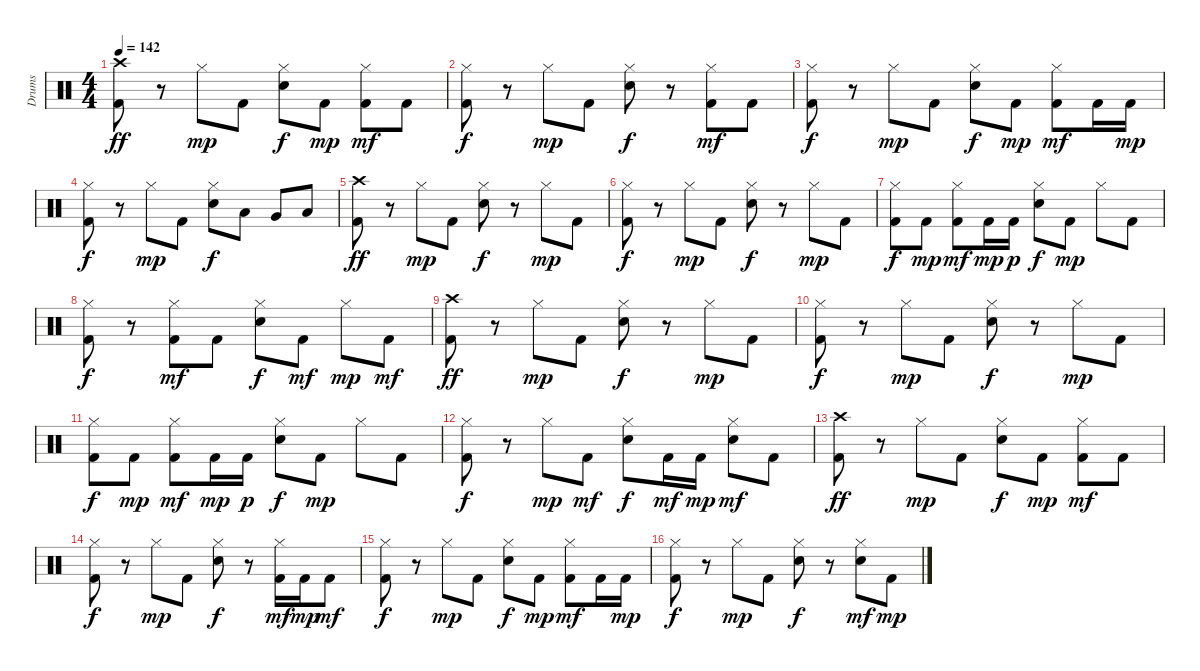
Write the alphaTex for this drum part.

\track ("Drums" "Drums") {instrument percussion}
\staff {score}
\articulation defaults
\ts (4 4)
\tempo 142
\clef neutral
\ks c
("Crash high (hit)" "Kick (hit) 2").8{dy ff} r.8 "Hi-Hat (closed)".8{dy mp} "Kick (hit) 2".8 ("Hi-Hat (closed)" "Snare (hit) 2").8{dy f} "Kick (hit) 2".8{dy mp} ("Hi-Hat (closed)" "Kick (hit) 2").8{dy mf} "Kick (hit) 2".8 |
("Hi-Hat (closed)" "Kick (hit) 2").8{dy f} r.8 "Hi-Hat (closed)".8{dy mp} "Kick (hit) 2".8 ("Hi-Hat (closed)" "Snare (hit) 2").8{dy f} r.8 ("Hi-Hat (closed)" "Kick (hit) 2").8{dy mf} "Kick (hit) 2".8 |
("Hi-Hat (closed)" "Kick (hit) 2").8{dy f} r.8 "Hi-Hat (closed)".8{dy mp} "Kick (hit) 2".8 ("Hi-Hat (closed)" "Snare (hit) 2").8{dy f} "Kick (hit) 2".8{dy mp} ("Hi-Hat (closed)" "Kick (hit) 2").8{dy mf} "Kick (hit) 2".16 "Kick (hit) 2".16{dy mp} |
("Hi-Hat (closed)" "Kick (hit) 2").8{dy f} r.8 "Hi-Hat (closed)".8{dy mp} "Kick (hit) 2".8 ("Hi-Hat (closed)" "Snare (hit) 2").8{dy f} "Low Tom (hit)".8 "Very Low Tom (hit)".8 "Low Floor Tom (hit)".8 |
("Crash high (hit)" "Kick (hit) 2").8{dy ff} r.8 "Hi-Hat (closed)".8{dy mp} "Kick (hit) 2".8 ("Hi-Hat (closed)" "Snare (hit) 2").8{dy f} r.8 "Hi-Hat (closed)".8{dy mp} "Kick (hit) 2".8 |
("Hi-Hat (closed)" "Kick (hit) 2").8{dy f} r.8 "Hi-Hat (closed)".8{dy mp} "Kick (hit) 2".8 ("Hi-Hat (closed)" "Snare (hit) 2").8{dy f} r.8 "Hi-Hat (closed)".8{dy mp} "Kick (hit) 2".8 |
("Hi-Hat (closed)" "Kick (hit) 2").8{dy f} "Kick (hit) 2".8{dy mp} ("Hi-Hat (closed)" "Kick (hit) 2").8{dy mf} "Kick (hit) 2".16{dy mp} "Kick (hit) 2".16{dy p} ("Hi-Hat (closed)" "Snare (hit) 2").8{dy f} "Kick (hit) 2".8{dy mp} "Hi-Hat (closed)".8 "Kick (hit) 2".8 |
("Hi-Hat (closed)" "Kick (hit) 2").8{dy f} r.8 ("Hi-Hat (closed)" "Kick (hit) 2").8{dy mf} "Kick (hit) 2".8 ("Hi-Hat (closed)" "Snare (hit) 2").8{dy f} "Kick (hit) 2".8{dy mf} "Hi-Hat (closed)".8{dy mp} "Kick (hit) 2".8{dy mf} |
("Crash high (hit)" "Kick (hit) 2").8{dy ff} r.8 "Hi-Hat (closed)".8{dy mp} "Kick (hit) 2".8 ("Hi-Hat (closed)" "Snare (hit) 2").8{dy f} r.8 "Hi-Hat (closed)".8{dy mp} "Kick (hit) 2".8 |
("Hi-Hat (closed)" "Kick (hit) 2").8{dy f} r.8 "Hi-Hat (closed)".8{dy mp} "Kick (hit) 2".8 ("Hi-Hat (closed)" "Snare (hit) 2").8{dy f} r.8 "Hi-Hat (closed)".8{dy mp} "Kick (hit) 2".8 |
("Hi-Hat (closed)" "Kick (hit) 2").8{dy f} "Kick (hit) 2".8{dy mp} ("Hi-Hat (closed)" "Kick (hit) 2").8{dy mf} "Kick (hit) 2".16{dy mp} "Kick (hit) 2".16{dy p} ("Hi-Hat (closed)" "Snare (hit) 2").8{dy f} "Kick (hit) 2".8{dy mp} "Hi-Hat (closed)".8 "Kick (hit) 2".8 |
("Hi-Hat (closed)" "Kick (hit) 2").8{dy f} r.8 "Hi-Hat (closed)".8{dy mp} "Kick (hit) 2".8{dy mf} ("Hi-Hat (closed)" "Snare (hit) 2").8{dy f} "Kick (hit) 2".16{dy mf} "Kick (hit) 2".16{dy mp} ("Hi-Hat (closed)" "Snare (hit) 2").8{dy mf} "Kick (hit) 2".8 |
("Crash high (hit)" "Kick (hit) 2").8{dy ff} r.8 "Hi-Hat (closed)".8{dy mp} "Kick (hit) 2".8 ("Hi-Hat (closed)" "Snare (hit) 2").8{dy f} "Kick (hit) 2".8{dy mp} ("Hi-Hat (closed)" "Kick (hit) 2").8{dy mf} "Kick (hit) 2".8 |
("Hi-Hat (closed)" "Kick (hit) 2").8{dy f} r.8 "Hi-Hat (closed)".8{dy mp} "Kick (hit) 2".8 ("Hi-Hat (closed)" "Snare (hit) 2").8{dy f} r.8 ("Hi-Hat (closed)" "Kick (hit) 2").16{dy mf} "Kick (hit) 2".16{dy mp} "Kick (hit) 2".8{dy mf} |
("Hi-Hat (closed)" "Kick (hit) 2").8{dy f} r.8 "Hi-Hat (closed)".8{dy mp} "Kick (hit) 2".8 ("Hi-Hat (closed)" "Snare (hit) 2").8{dy f} "Kick (hit) 2".8{dy mp} ("Hi-Hat (closed)" "Kick (hit) 2").8{dy mf} "Kick (hit) 2".16 "Kick (hit) 2".16{dy mp} |
("Hi-Hat (closed)" "Kick (hit) 2").8{dy f} r.8 "Hi-Hat (closed)".8{dy mp} "Kick (hit) 2".8 ("Hi-Hat (closed)" "Snare (hit) 2").8{dy f} r.8 ("Hi-Hat (closed)" "Snare (hit) 2").8{dy mf} "Kick (hit) 2".8{dy mp}
